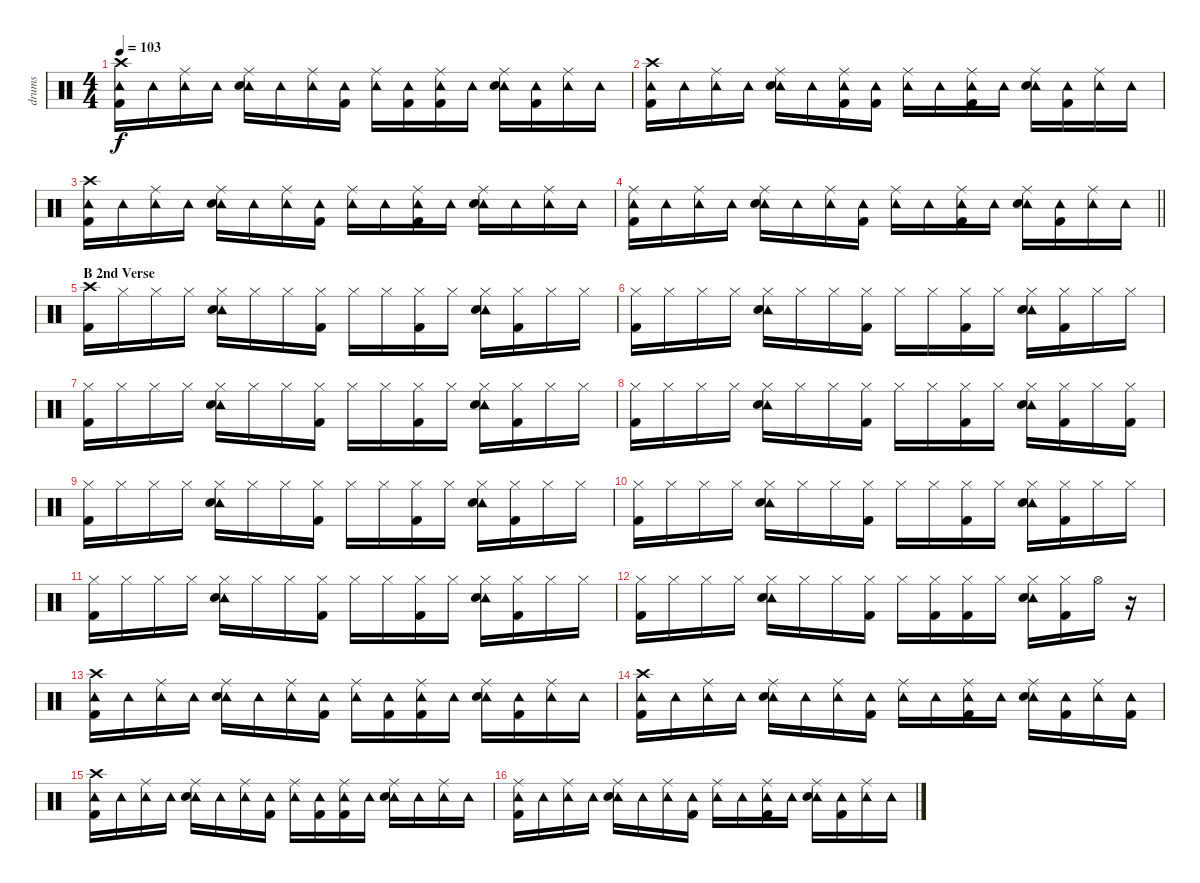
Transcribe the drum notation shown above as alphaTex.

\track ("drums" "drums") {instrument percussion}
\staff {score}
\articulation defaults
\ts (4 4)
\tempo 103
\clef neutral
\ks c
("Crash high (hit)" "Tambourine (hit)" "Kick (hit) 2").16{dy f} "Tambourine (hit)".16 ("Ride (middle)" "Tambourine (hit)").16 "Tambourine (hit)".16 ("Ride (middle)" "Tambourine (hit)" "Snare (hit) 2").16 "Tambourine (hit)".16 ("Ride (middle)" "Tambourine (hit)").16 ("Tambourine (hit)" "Kick (hit) 2").16 ("Ride (middle)" "Tambourine (hit)").16 ("Tambourine (hit)" "Kick (hit) 2").16 ("Ride (middle)" "Tambourine (hit)" "Kick (hit) 2").16 "Tambourine (hit)".16 ("Ride (middle)" "Tambourine (hit)" "Snare (hit) 2").16 ("Tambourine (hit)" "Kick (hit) 2").16 ("Ride (middle)" "Tambourine (hit)").16 "Tambourine (hit)".16 |
("Crash high (hit)" "Tambourine (hit)" "Kick (hit) 2").16 "Tambourine (hit)".16 ("Ride (middle)" "Tambourine (hit)").16 "Tambourine (hit)".16 ("Ride (middle)" "Tambourine (hit)" "Snare (hit) 2").16 "Tambourine (hit)".16 ("Ride (middle)" "Tambourine (hit)" "Kick (hit) 2").16 ("Tambourine (hit)" "Kick (hit) 2").16 ("Ride (middle)" "Tambourine (hit)").16 "Tambourine (hit)".16 ("Ride (middle)" "Tambourine (hit)" "Kick (hit) 2").16 "Tambourine (hit)".16 ("Ride (middle)" "Tambourine (hit)" "Snare (hit) 2").16 ("Tambourine (hit)" "Kick (hit) 2").16 ("Ride (middle)" "Tambourine (hit)").16 "Tambourine (hit)".16 |
("Crash high (hit)" "Tambourine (hit)" "Kick (hit) 2").16 "Tambourine (hit)".16 ("Ride (middle)" "Tambourine (hit)").16 "Tambourine (hit)".16 ("Ride (middle)" "Tambourine (hit)" "Snare (hit) 2").16 "Tambourine (hit)".16 ("Ride (middle)" "Tambourine (hit)").16 ("Tambourine (hit)" "Kick (hit) 2").16 ("Ride (middle)" "Tambourine (hit)").16 "Tambourine (hit)".16 ("Ride (middle)" "Tambourine (hit)" "Kick (hit) 2").16 "Tambourine (hit)".16 ("Ride (middle)" "Tambourine (hit)" "Snare (hit) 2").16 "Tambourine (hit)".16 ("Ride (middle)" "Tambourine (hit)").16 "Tambourine (hit)".16 |
\barLineRight lightlight
("Ride (middle)" "Tambourine (hit)" "Kick (hit) 2").16 "Tambourine (hit)".16 ("Ride (middle)" "Tambourine (hit)").16 "Tambourine (hit)".16 ("Ride (middle)" "Tambourine (hit)" "Snare (hit) 2").16 "Tambourine (hit)".16 ("Ride (middle)" "Tambourine (hit)").16 ("Tambourine (hit)" "Kick (hit) 2").16 ("Ride (middle)" "Tambourine (hit)").16 "Tambourine (hit)".16 ("Ride (middle)" "Tambourine (hit)" "Kick (hit) 2").16 "Tambourine (hit)".16 ("Ride (middle)" "Tambourine (hit)" "Snare (hit) 2").16 ("Tambourine (hit)" "Kick (hit) 2").16 ("Ride (middle)" "Tambourine (hit)").16 "Tambourine (hit)".16 |
\section ("" "B 2nd Verse")
("Crash high (hit)" "Kick (hit) 2").16 "Hi-Hat (closed)".16 "Hi-Hat (closed)".16 "Hi-Hat (closed)".16 ("Tambourine (hit)" "Snare (hit) 2" "Hi-Hat (closed)").16 "Hi-Hat (closed)".16 "Hi-Hat (closed)".16 ("Hi-Hat (closed)" "Kick (hit) 2").16 "Hi-Hat (closed)".16 "Hi-Hat (closed)".16 ("Hi-Hat (closed)" "Kick (hit) 2").16 "Hi-Hat (closed)".16 ("Tambourine (hit)" "Snare (hit) 2" "Hi-Hat (closed)").16 ("Hi-Hat (closed)" "Kick (hit) 2").16 "Hi-Hat (closed)".16 "Hi-Hat (closed)".16 |
("Hi-Hat (closed)" "Kick (hit) 2").16 "Hi-Hat (closed)".16 "Hi-Hat (closed)".16 "Hi-Hat (closed)".16 ("Tambourine (hit)" "Snare (hit) 2" "Hi-Hat (closed)").16 "Hi-Hat (closed)".16 "Hi-Hat (closed)".16 ("Hi-Hat (closed)" "Kick (hit) 2").16 "Hi-Hat (closed)".16 "Hi-Hat (closed)".16 ("Hi-Hat (closed)" "Kick (hit) 2").16 "Hi-Hat (closed)".16 ("Tambourine (hit)" "Snare (hit) 2" "Hi-Hat (closed)").16 ("Hi-Hat (closed)" "Kick (hit) 2").16 "Hi-Hat (closed)".16 "Hi-Hat (closed)".16 |
("Hi-Hat (closed)" "Kick (hit) 2").16 "Hi-Hat (closed)".16 "Hi-Hat (closed)".16 "Hi-Hat (closed)".16 ("Tambourine (hit)" "Snare (hit) 2" "Hi-Hat (closed)").16 "Hi-Hat (closed)".16 "Hi-Hat (closed)".16 ("Hi-Hat (closed)" "Kick (hit) 2").16 "Hi-Hat (closed)".16 "Hi-Hat (closed)".16 ("Hi-Hat (closed)" "Kick (hit) 2").16 "Hi-Hat (closed)".16 ("Tambourine (hit)" "Snare (hit) 2" "Hi-Hat (closed)").16 ("Hi-Hat (closed)" "Kick (hit) 2").16 "Hi-Hat (closed)".16 "Hi-Hat (closed)".16 |
("Hi-Hat (closed)" "Kick (hit) 2").16 "Hi-Hat (closed)".16 "Hi-Hat (closed)".16 "Hi-Hat (closed)".16 ("Tambourine (hit)" "Snare (hit) 2" "Hi-Hat (closed)").16 "Hi-Hat (closed)".16 "Hi-Hat (closed)".16 ("Hi-Hat (closed)" "Kick (hit) 2").16 "Hi-Hat (closed)".16 "Hi-Hat (closed)".16 ("Hi-Hat (closed)" "Kick (hit) 2").16 "Hi-Hat (closed)".16 ("Tambourine (hit)" "Snare (hit) 2" "Hi-Hat (closed)").16 ("Hi-Hat (closed)" "Kick (hit) 2").16 "Hi-Hat (closed)".16 ("Hi-Hat (closed)" "Kick (hit) 2").16 |
("Hi-Hat (closed)" "Kick (hit) 2").16 "Hi-Hat (closed)".16 "Hi-Hat (closed)".16 "Hi-Hat (closed)".16 ("Tambourine (hit)" "Snare (hit) 2" "Hi-Hat (closed)").16 "Hi-Hat (closed)".16 "Hi-Hat (closed)".16 ("Hi-Hat (closed)" "Kick (hit) 2").16 "Hi-Hat (closed)".16 "Hi-Hat (closed)".16 ("Hi-Hat (closed)" "Kick (hit) 2").16 "Hi-Hat (closed)".16 ("Tambourine (hit)" "Snare (hit) 2" "Hi-Hat (closed)").16 ("Hi-Hat (closed)" "Kick (hit) 2").16 "Hi-Hat (closed)".16 "Hi-Hat (closed)".16 |
("Hi-Hat (closed)" "Kick (hit) 2").16 "Hi-Hat (closed)".16 "Hi-Hat (closed)".16 "Hi-Hat (closed)".16 ("Tambourine (hit)" "Snare (hit) 2" "Hi-Hat (closed)").16 "Hi-Hat (closed)".16 "Hi-Hat (closed)".16 ("Hi-Hat (closed)" "Kick (hit) 2").16 "Hi-Hat (closed)".16 "Hi-Hat (closed)".16 ("Hi-Hat (closed)" "Kick (hit) 2").16 "Hi-Hat (closed)".16 ("Tambourine (hit)" "Snare (hit) 2" "Hi-Hat (closed)").16 ("Hi-Hat (closed)" "Kick (hit) 2").16 "Hi-Hat (closed)".16 "Hi-Hat (closed)".16 |
("Hi-Hat (closed)" "Kick (hit) 2").16 "Hi-Hat (closed)".16 "Hi-Hat (closed)".16 "Hi-Hat (closed)".16 ("Tambourine (hit)" "Snare (hit) 2" "Hi-Hat (closed)").16 "Hi-Hat (closed)".16 "Hi-Hat (closed)".16 ("Hi-Hat (closed)" "Kick (hit) 2").16 "Hi-Hat (closed)".16 "Hi-Hat (closed)".16 ("Hi-Hat (closed)" "Kick (hit) 2").16 "Hi-Hat (closed)".16 ("Tambourine (hit)" "Snare (hit) 2" "Hi-Hat (closed)").16 ("Hi-Hat (closed)" "Kick (hit) 2").16 "Hi-Hat (closed)".16 "Hi-Hat (closed)".16 |
("Hi-Hat (closed)" "Kick (hit) 2").16 "Hi-Hat (closed)".16 "Hi-Hat (closed)".16 "Hi-Hat (closed)".16 ("Tambourine (hit)" "Snare (hit) 2" "Hi-Hat (closed)").16 "Hi-Hat (closed)".16 "Hi-Hat (closed)".16 ("Hi-Hat (closed)" "Kick (hit) 2").16 "Hi-Hat (closed)".16 ("Hi-Hat (closed)" "Kick (hit) 2").16 ("Hi-Hat (closed)" "Kick (hit) 2").16 "Hi-Hat (closed)".16 ("Tambourine (hit)" "Snare (hit) 2" "Hi-Hat (closed)").16 ("Hi-Hat (closed)" "Kick (hit) 2").16 "Hi-Hat (open)".16 r.16 |
("Crash high (hit)" "Tambourine (hit)" "Kick (hit) 2").16 "Tambourine (hit)".16 ("Ride (middle)" "Tambourine (hit)").16 "Tambourine (hit)".16 ("Ride (middle)" "Tambourine (hit)" "Snare (hit) 2").16 "Tambourine (hit)".16 ("Ride (middle)" "Tambourine (hit)").16 ("Tambourine (hit)" "Kick (hit) 2").16 ("Ride (middle)" "Tambourine (hit)").16 ("Tambourine (hit)" "Kick (hit) 2").16 ("Ride (middle)" "Tambourine (hit)" "Kick (hit) 2").16 "Tambourine (hit)".16 ("Ride (middle)" "Tambourine (hit)" "Snare (hit) 2").16 ("Tambourine (hit)" "Kick (hit) 2").16 ("Ride (middle)" "Tambourine (hit)").16 "Tambourine (hit)".16 |
("Crash high (hit)" "Tambourine (hit)" "Kick (hit) 2").16 "Tambourine (hit)".16 ("Ride (middle)" "Tambourine (hit)").16 "Tambourine (hit)".16 ("Ride (middle)" "Tambourine (hit)" "Snare (hit) 2").16 "Tambourine (hit)".16 ("Ride (middle)" "Tambourine (hit)").16 ("Tambourine (hit)" "Kick (hit) 2").16 ("Ride (middle)" "Tambourine (hit)").16 "Tambourine (hit)".16 ("Ride (middle)" "Tambourine (hit)" "Kick (hit) 2").16 "Tambourine (hit)".16 ("Ride (middle)" "Tambourine (hit)" "Snare (hit) 2").16 ("Tambourine (hit)" "Kick (hit) 2").16 ("Ride (middle)" "Tambourine (hit)").16 ("Tambourine (hit)" "Kick (hit) 2").16 |
("Crash high (hit)" "Tambourine (hit)" "Kick (hit) 2").16 "Tambourine (hit)".16 ("Ride (middle)" "Tambourine (hit)").16 "Tambourine (hit)".16 ("Ride (middle)" "Tambourine (hit)" "Snare (hit) 2").16 "Tambourine (hit)".16 ("Ride (middle)" "Tambourine (hit)").16 ("Tambourine (hit)" "Kick (hit) 2").16 ("Ride (middle)" "Tambourine (hit)").16 ("Tambourine (hit)" "Kick (hit) 2").16 ("Ride (middle)" "Tambourine (hit)" "Kick (hit) 2").16 "Tambourine (hit)".16 ("Ride (middle)" "Tambourine (hit)" "Snare (hit) 2").16 "Tambourine (hit)".16 ("Ride (middle)" "Tambourine (hit)").16 "Tambourine (hit)".16 |
("Ride (middle)" "Tambourine (hit)" "Kick (hit) 2").16 "Tambourine (hit)".16 ("Ride (middle)" "Tambourine (hit)").16 "Tambourine (hit)".16 ("Ride (middle)" "Tambourine (hit)" "Snare (hit) 2").16 "Tambourine (hit)".16 ("Ride (middle)" "Tambourine (hit)").16 ("Tambourine (hit)" "Kick (hit) 2").16 ("Ride (middle)" "Tambourine (hit)").16 "Tambourine (hit)".16 ("Ride (middle)" "Tambourine (hit)" "Kick (hit) 2").16 "Tambourine (hit)".16 ("Ride (middle)" "Tambourine (hit)" "Snare (hit) 2").16 ("Tambourine (hit)" "Kick (hit) 2").16 ("Ride (middle)" "Tambourine (hit)").16 "Tambourine (hit)".16
